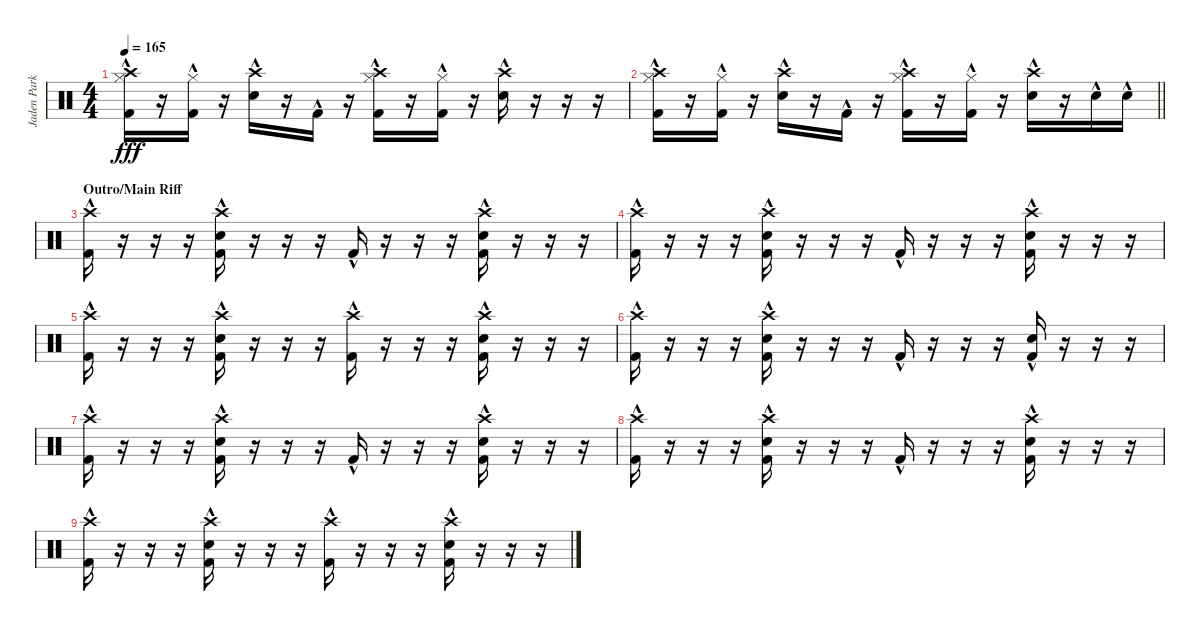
\track ("Jaden Parkes" "Jaden Park") {instrument percussion}
\staff {score}
\articulation defaults
\ts (4 4)
\tempo 165
\clef neutral
\ks c
("Hi-Hat (closed)"{hac} "Crash high (hit)" "Kick (hit) 2"{hac}).16{dy fff} r.16 ("Hi-Hat (closed)"{hac} "Kick (hit) 2"{hac}).16 r.16 ("Crash high (hit)"{hac} "Electric Snare (hit)"{hac}).16 r.16 "Kick (hit) 2"{hac}.16 r.16 ("Hi-Hat (closed)"{hac} "Crash high (hit)" "Kick (hit) 2"{hac}).16 r.16 ("Hi-Hat (closed)"{hac} "Kick (hit) 2"{hac}).16 r.16 ("Crash high (hit)"{hac} "Electric Snare (hit)"{hac}).16 r.16 r.16 r.16 |
\barLineRight lightlight
("Hi-Hat (closed)"{hac} "Crash high (hit)" "Kick (hit) 2"{hac}).16 r.16 ("Hi-Hat (closed)"{hac} "Kick (hit) 2"{hac}).16 r.16 ("Crash high (hit)"{hac} "Electric Snare (hit)"{hac}).16 r.16 "Kick (hit) 2"{hac}.16 r.16 ("Hi-Hat (closed)"{hac} "Crash high (hit)" "Kick (hit) 2"{hac}).16 r.16 ("Hi-Hat (closed)"{hac} "Kick (hit) 2"{hac}).16 r.16 ("Crash high (hit)"{hac} "Electric Snare (hit)"{hac}).16 r.16 "Electric Snare (hit)"{hac}.16 "Electric Snare (hit)"{hac}.16 |
\section ("" "Outro/Main Riff")
("Crash high (hit)" "Kick (hit) 2"{hac}).16{volume 16} r.16 r.16 r.16 ("Crash high (hit)"{hac} "Electric Snare (hit)" "Kick (hit) 2"{hac}).16 r.16 r.16 r.16 "Kick (hit) 2"{hac}.16 r.16 r.16 r.16 ("Crash high (hit)"{hac} "Electric Snare (hit)" "Kick (hit) 2"{hac}).16 r.16 r.16 r.16 |
("Crash high (hit)" "Kick (hit) 2"{hac}).16 r.16 r.16 r.16 ("Crash high (hit)"{hac} "Electric Snare (hit)" "Kick (hit) 2"{hac}).16 r.16 r.16 r.16 "Kick (hit) 2"{hac}.16 r.16 r.16 r.16 ("Crash high (hit)"{hac} "Electric Snare (hit)" "Kick (hit) 2"{hac}).16 r.16 r.16 r.16 |
("Crash high (hit)" "Kick (hit) 2"{hac}).16 r.16 r.16 r.16 ("Crash high (hit)"{hac} "Electric Snare (hit)" "Kick (hit) 2"{hac}).16 r.16 r.16 r.16 ("Crash high (hit)" "Kick (hit) 2"{hac}).16 r.16 r.16 r.16 ("Crash high (hit)"{hac} "Electric Snare (hit)" "Kick (hit) 2"{hac}).16 r.16 r.16 r.16 |
("Crash high (hit)" "Kick (hit) 2"{hac}).16 r.16 r.16 r.16 ("Crash high (hit)"{hac} "Electric Snare (hit)" "Kick (hit) 2"{hac}).16 r.16 r.16 r.16 "Kick (hit) 2"{hac}.16 r.16 r.16 r.16 ("Electric Snare (hit)" "Kick (hit) 2"{hac}).16 r.16 r.16 r.16 |
("Crash high (hit)" "Kick (hit) 2"{hac}).16 r.16 r.16 r.16 ("Crash high (hit)"{hac} "Electric Snare (hit)" "Kick (hit) 2"{hac}).16 r.16 r.16 r.16 "Kick (hit) 2"{hac}.16 r.16 r.16 r.16 ("Crash high (hit)"{hac} "Electric Snare (hit)" "Kick (hit) 2"{hac}).16 r.16 r.16 r.16 |
("Crash high (hit)" "Kick (hit) 2"{hac}).16 r.16 r.16 r.16 ("Crash high (hit)"{hac} "Electric Snare (hit)" "Kick (hit) 2"{hac}).16 r.16 r.16 r.16 "Kick (hit) 2"{hac}.16 r.16 r.16 r.16 ("Crash high (hit)"{hac} "Electric Snare (hit)" "Kick (hit) 2"{hac}).16 r.16 r.16 r.16 |
("Crash high (hit)" "Kick (hit) 2"{hac}).16 r.16 r.16 r.16 ("Crash high (hit)"{hac} "Electric Snare (hit)" "Kick (hit) 2"{hac}).16 r.16 r.16 r.16 ("Crash high (hit)" "Kick (hit) 2"{hac}).16 r.16 r.16 r.16 ("Crash high (hit)"{hac} "Electric Snare (hit)" "Kick (hit) 2"{hac}).16 r.16 r.16 r.16
